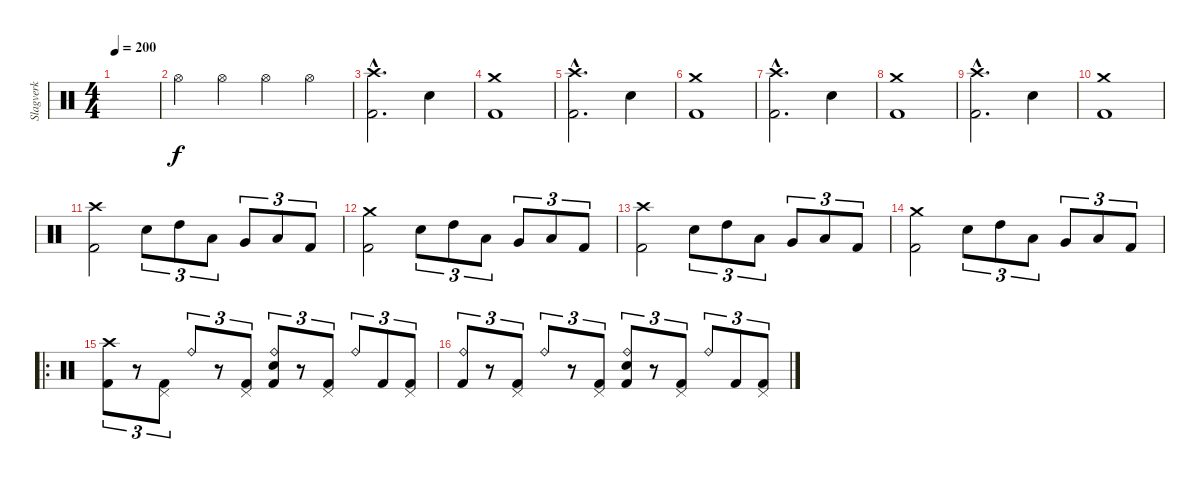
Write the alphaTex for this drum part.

\track ("Slagverk" "Slagverk") {instrument percussion}
\staff {score}
\articulation defaults
\ts (4 4)
\tempo 200
\clef neutral
\ks c
|
"Hi-Hat (open)".4 "Hi-Hat (open)".4 "Hi-Hat (open)".4 "Hi-Hat (open)".4 |
("Crash high (hit)"{hac} "Kick (hit) 2"{hac}).2{d} "Electric Snare (hit)".4 |
("Crash medium (hit)" "Kick (hit) 2").1 |
("Crash high (hit)"{hac} "Kick (hit) 2"{hac}).2{d} "Electric Snare (hit)".4 |
("Crash medium (hit)" "Kick (hit) 2").1 |
("Crash high (hit)"{hac} "Kick (hit) 2"{hac}).2{d} "Electric Snare (hit)".4 |
("Crash medium (hit)" "Kick (hit) 2").1 |
("Crash high (hit)"{hac} "Kick (hit) 2"{hac}).2{d} "Electric Snare (hit)".4 |
("Crash medium (hit)" "Kick (hit) 2").1 |
("Crash high (hit)" "Kick (hit) 2").2 "Electric Snare (hit)".8{tu (3 2)} "High Tom (hit)".8{tu (3 2)} "Low Tom (hit)".8{tu (3 2)} "Very Low Tom (hit)".8{tu (3 2)} "Low Floor Tom (hit)".8{tu (3 2)} "Kick (hit) 2".8{tu (3 2)} |
("Crash medium (hit)" "Kick (hit) 2").2 "Electric Snare (hit)".8{tu (3 2)} "High Tom (hit)".8{tu (3 2)} "Low Tom (hit)".8{tu (3 2)} "Very Low Tom (hit)".8{tu (3 2)} "Low Floor Tom (hit)".8{tu (3 2)} "Kick (hit) 2".8{tu (3 2)} |
("Crash high (hit)" "Kick (hit) 2").2 "Electric Snare (hit)".8{tu (3 2)} "High Tom (hit)".8{tu (3 2)} "Low Tom (hit)".8{tu (3 2)} "Very Low Tom (hit)".8{tu (3 2)} "Low Floor Tom (hit)".8{tu (3 2)} "Kick (hit) 2".8{tu (3 2)} |
("Crash medium (hit)" "Kick (hit) 2").2 "Electric Snare (hit)".8{tu (3 2)} "High Tom (hit)".8{tu (3 2)} "Low Tom (hit)".8{tu (3 2)} "Very Low Tom (hit)".8{tu (3 2)} "Low Floor Tom (hit)".8{tu (3 2)} "Kick (hit) 2".8{tu (3 2)} |
\ro
("Crash high (hit)" "Kick (hit) 2").8{tu (3 2)} r.8{tu (3 2)} ("Pedal Hi-Hat (hit)" "Kick (hit) 2").8{tu (3 2)} "Ride (bell)".8{tu (3 2)} r.8{tu (3 2)} ("Pedal Hi-Hat (hit)" "Kick (hit) 2").8{tu (3 2)} ("Ride (bell)" "Snare (hit) 2" "Kick (hit) 2").8{tu (3 2)} r.8{tu (3 2)} ("Pedal Hi-Hat (hit)" "Kick (hit) 2").8{tu (3 2)} "Ride (bell)".8{tu (3 2)} "Kick (hit) 2".8{tu (3 2)} ("Pedal Hi-Hat (hit)" "Kick (hit) 2").8{tu (3 2)} |
("Ride (bell)" "Kick (hit) 2").8{tu (3 2)} r.8{tu (3 2)} ("Pedal Hi-Hat (hit)" "Kick (hit) 2").8{tu (3 2)} "Ride (bell)".8{tu (3 2)} r.8{tu (3 2)} ("Pedal Hi-Hat (hit)" "Kick (hit) 2").8{tu (3 2)} ("Ride (bell)" "Snare (hit) 2" "Kick (hit) 2").8{tu (3 2)} r.8{tu (3 2)} ("Pedal Hi-Hat (hit)" "Kick (hit) 2").8{tu (3 2)} "Ride (bell)".8{tu (3 2)} "Kick (hit) 2".8{tu (3 2)} ("Pedal Hi-Hat (hit)" "Kick (hit) 2").8{tu (3 2)}
